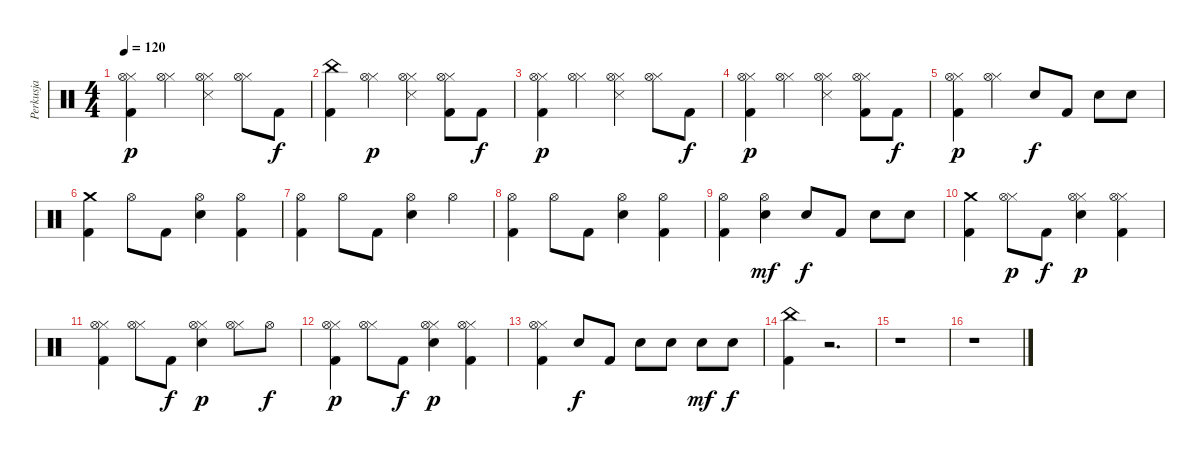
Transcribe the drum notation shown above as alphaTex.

\track ("Perkusja" "Perkusja") {instrument percussion}
\staff {score}
\articulation defaults
\ts (4 4)
\tempo 120
\clef neutral
\ks c
("Kick (hit) 2" "Hi-Hat (closed)" "Hi-Hat (open)").4{dy p} ("Hi-Hat (closed)" "Hi-Hat (open)").4 ("Metronome (hit)" "Hi-Hat (closed)" "Hi-Hat (open)").4 ("Hi-Hat (closed)" "Hi-Hat (open)").8 "Kick (hit) 2".8{dy f} |
("Kick (hit) 2" "China (hit)").4 ("Hi-Hat (closed)" "Hi-Hat (open)").4{dy p} ("Metronome (hit)" "Hi-Hat (closed)" "Hi-Hat (open)").4 ("Kick (hit) 2" "Hi-Hat (closed)" "Hi-Hat (open)").8 "Kick (hit) 2".8{dy f} |
("Kick (hit) 2" "Hi-Hat (closed)" "Hi-Hat (open)").4{dy p} ("Hi-Hat (closed)" "Hi-Hat (open)").4 ("Metronome (hit)" "Hi-Hat (closed)" "Hi-Hat (open)").4 ("Hi-Hat (closed)" "Hi-Hat (open)").8 "Kick (hit) 2".8{dy f} |
("Kick (hit) 2" "Hi-Hat (closed)" "Hi-Hat (open)").4{dy p} ("Hi-Hat (closed)" "Hi-Hat (open)").4 ("Metronome (hit)" "Hi-Hat (closed)" "Hi-Hat (open)").4 ("Kick (hit) 2" "Hi-Hat (closed)" "Hi-Hat (open)").8 "Kick (hit) 2".8{dy f} |
("Kick (hit) 2" "Hi-Hat (closed)" "Hi-Hat (open)").4{dy p} ("Hi-Hat (closed)" "Hi-Hat (open)").4 "Electric Snare (hit)".8{dy f} "Kick (hit) 2".8 "Electric Snare (hit)".8 "Electric Snare (hit)".8 |
("Kick (hit) 2" "Crash medium (hit)").4 "Hi-Hat (open)".8 "Kick (hit) 2".8 ("Electric Snare (hit)" "Hi-Hat (open)").4 ("Kick (hit) 2" "Hi-Hat (open)").4 |
("Kick (hit) 2" "Hi-Hat (open)").4 "Hi-Hat (open)".8 "Kick (hit) 2".8 ("Electric Snare (hit)" "Hi-Hat (open)").4 "Hi-Hat (open)".4 |
("Kick (hit) 2" "Hi-Hat (open)").4 "Hi-Hat (open)".8 "Kick (hit) 2".8 ("Electric Snare (hit)" "Hi-Hat (open)").4 ("Kick (hit) 2" "Hi-Hat (open)").4 |
("Kick (hit) 2" "Hi-Hat (open)").4 ("Electric Snare (hit)" "Hi-Hat (open)").4{dy mf} "Electric Snare (hit)".8{dy f} "Kick (hit) 2".8 "Electric Snare (hit)".8 "Electric Snare (hit)".8 |
("Kick (hit) 2" "Crash medium (hit)").4 ("Hi-Hat (closed)" "Hi-Hat (open)").8{dy p} "Kick (hit) 2".8{dy f} ("Electric Snare (hit)" "Hi-Hat (closed)" "Hi-Hat (open)").4{dy p} ("Kick (hit) 2" "Hi-Hat (closed)" "Hi-Hat (open)").4 |
("Kick (hit) 2" "Hi-Hat (closed)" "Hi-Hat (open)").4 ("Hi-Hat (closed)" "Hi-Hat (open)").8 "Kick (hit) 2".8{dy f} ("Electric Snare (hit)" "Hi-Hat (closed)" "Hi-Hat (open)").4{dy p} ("Hi-Hat (closed)" "Hi-Hat (open)").8 "Hi-Hat (open)".8{dy f} |
("Kick (hit) 2" "Hi-Hat (closed)" "Hi-Hat (open)").4{dy p} ("Hi-Hat (closed)" "Hi-Hat (open)").8 "Kick (hit) 2".8{dy f} ("Electric Snare (hit)" "Hi-Hat (closed)" "Hi-Hat (open)").4{dy p} ("Kick (hit) 2" "Hi-Hat (closed)" "Hi-Hat (open)").4 |
("Kick (hit) 2" "Hi-Hat (closed)" "Hi-Hat (open)").4 "Electric Snare (hit)".8{dy f} "Kick (hit) 2".8 "Electric Snare (hit)".8 "Electric Snare (hit)".8 "Electric Snare (hit)".8{dy mf} "Electric Snare (hit)".8{dy f} |
("Kick (hit) 2" "China (hit)").4 r.2{d} |
r.1 |
r.1
